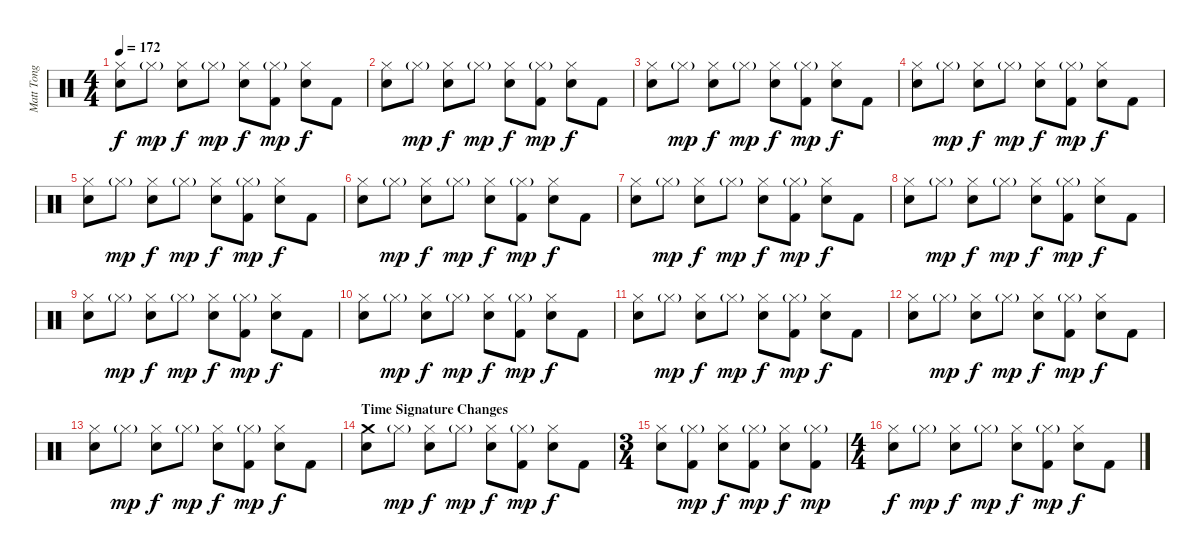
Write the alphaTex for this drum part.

\track ("Matt Tong" "Matt Tong") {instrument percussion}
\staff {score}
\articulation defaults
\ts (4 4)
\tempo 172
\clef neutral
\ks c
("Hi-Hat (closed)" "Snare (hit) 2").8{dy f} "Hi-Hat (closed)"{g}.8{dy mp} ("Hi-Hat (closed)" "Snare (hit) 2").8{dy f} "Hi-Hat (closed)"{g}.8{dy mp} ("Hi-Hat (closed)" "Snare (hit) 2").8{dy f} ("Hi-Hat (closed)"{g} "Kick (hit) 2").8{dy mp} ("Hi-Hat (closed)" "Snare (hit) 2").8{dy f} "Kick (hit) 2".8 |
("Hi-Hat (closed)" "Snare (hit) 2").8 "Hi-Hat (closed)"{g}.8{dy mp} ("Hi-Hat (closed)" "Snare (hit) 2").8{dy f} "Hi-Hat (closed)"{g}.8{dy mp} ("Hi-Hat (closed)" "Snare (hit) 2").8{dy f} ("Hi-Hat (closed)"{g} "Kick (hit) 2").8{dy mp} ("Hi-Hat (closed)" "Snare (hit) 2").8{dy f} "Kick (hit) 2".8 |
("Hi-Hat (closed)" "Snare (hit) 2").8 "Hi-Hat (closed)"{g}.8{dy mp} ("Hi-Hat (closed)" "Snare (hit) 2").8{dy f} "Hi-Hat (closed)"{g}.8{dy mp} ("Hi-Hat (closed)" "Snare (hit) 2").8{dy f} ("Hi-Hat (closed)"{g} "Kick (hit) 2").8{dy mp} ("Hi-Hat (closed)" "Snare (hit) 2").8{dy f} "Kick (hit) 2".8 |
("Hi-Hat (closed)" "Snare (hit) 2").8 "Hi-Hat (closed)"{g}.8{dy mp} ("Hi-Hat (closed)" "Snare (hit) 2").8{dy f} "Hi-Hat (closed)"{g}.8{dy mp} ("Hi-Hat (closed)" "Snare (hit) 2").8{dy f} ("Hi-Hat (closed)"{g} "Kick (hit) 2").8{dy mp} ("Hi-Hat (closed)" "Snare (hit) 2").8{dy f} "Kick (hit) 2".8 |
("Hi-Hat (closed)" "Snare (hit) 2").8 "Hi-Hat (closed)"{g}.8{dy mp} ("Hi-Hat (closed)" "Snare (hit) 2").8{dy f} "Hi-Hat (closed)"{g}.8{dy mp} ("Hi-Hat (closed)" "Snare (hit) 2").8{dy f} ("Hi-Hat (closed)"{g} "Kick (hit) 2").8{dy mp} ("Hi-Hat (closed)" "Snare (hit) 2").8{dy f} "Kick (hit) 2".8 |
("Hi-Hat (closed)" "Snare (hit) 2").8 "Hi-Hat (closed)"{g}.8{dy mp} ("Hi-Hat (closed)" "Snare (hit) 2").8{dy f} "Hi-Hat (closed)"{g}.8{dy mp} ("Hi-Hat (closed)" "Snare (hit) 2").8{dy f} ("Hi-Hat (closed)"{g} "Kick (hit) 2").8{dy mp} ("Hi-Hat (closed)" "Snare (hit) 2").8{dy f} "Kick (hit) 2".8 |
("Hi-Hat (closed)" "Snare (hit) 2").8 "Hi-Hat (closed)"{g}.8{dy mp} ("Hi-Hat (closed)" "Snare (hit) 2").8{dy f} "Hi-Hat (closed)"{g}.8{dy mp} ("Hi-Hat (closed)" "Snare (hit) 2").8{dy f} ("Hi-Hat (closed)"{g} "Kick (hit) 2").8{dy mp} ("Hi-Hat (closed)" "Snare (hit) 2").8{dy f} "Kick (hit) 2".8 |
("Hi-Hat (closed)" "Snare (hit) 2").8 "Hi-Hat (closed)"{g}.8{dy mp} ("Hi-Hat (closed)" "Snare (hit) 2").8{dy f} "Hi-Hat (closed)"{g}.8{dy mp} ("Hi-Hat (closed)" "Snare (hit) 2").8{dy f} ("Hi-Hat (closed)"{g} "Kick (hit) 2").8{dy mp} ("Hi-Hat (closed)" "Snare (hit) 2").8{dy f} "Kick (hit) 2".8 |
("Hi-Hat (closed)" "Snare (hit) 2").8 "Hi-Hat (closed)"{g}.8{dy mp} ("Hi-Hat (closed)" "Snare (hit) 2").8{dy f} "Hi-Hat (closed)"{g}.8{dy mp} ("Hi-Hat (closed)" "Snare (hit) 2").8{dy f} ("Hi-Hat (closed)"{g} "Kick (hit) 2").8{dy mp} ("Hi-Hat (closed)" "Snare (hit) 2").8{dy f} "Kick (hit) 2".8 |
("Hi-Hat (closed)" "Snare (hit) 2").8 "Hi-Hat (closed)"{g}.8{dy mp} ("Hi-Hat (closed)" "Snare (hit) 2").8{dy f} "Hi-Hat (closed)"{g}.8{dy mp} ("Hi-Hat (closed)" "Snare (hit) 2").8{dy f} ("Hi-Hat (closed)"{g} "Kick (hit) 2").8{dy mp} ("Hi-Hat (closed)" "Snare (hit) 2").8{dy f} "Kick (hit) 2".8 |
("Hi-Hat (closed)" "Snare (hit) 2").8 "Hi-Hat (closed)"{g}.8{dy mp} ("Hi-Hat (closed)" "Snare (hit) 2").8{dy f} "Hi-Hat (closed)"{g}.8{dy mp} ("Hi-Hat (closed)" "Snare (hit) 2").8{dy f} ("Hi-Hat (closed)"{g} "Kick (hit) 2").8{dy mp} ("Hi-Hat (closed)" "Snare (hit) 2").8{dy f} "Kick (hit) 2".8 |
("Hi-Hat (closed)" "Snare (hit) 2").8 "Hi-Hat (closed)"{g}.8{dy mp} ("Hi-Hat (closed)" "Snare (hit) 2").8{dy f} "Hi-Hat (closed)"{g}.8{dy mp} ("Hi-Hat (closed)" "Snare (hit) 2").8{dy f} ("Hi-Hat (closed)"{g} "Kick (hit) 2").8{dy mp} ("Hi-Hat (closed)" "Snare (hit) 2").8{dy f} "Kick (hit) 2".8 |
("Hi-Hat (closed)" "Snare (hit) 2").8 "Hi-Hat (closed)"{g}.8{dy mp} ("Hi-Hat (closed)" "Snare (hit) 2").8{dy f} "Hi-Hat (closed)"{g}.8{dy mp} ("Hi-Hat (closed)" "Snare (hit) 2").8{dy f} ("Hi-Hat (closed)"{g} "Kick (hit) 2").8{dy mp} ("Hi-Hat (closed)" "Snare (hit) 2").8{dy f} "Kick (hit) 2".8 |
\section ("" "Time Signature Changes")
("Crash medium (hit)" "Snare (hit) 2").8 "Hi-Hat (closed)"{g}.8{dy mp} ("Hi-Hat (closed)" "Snare (hit) 2").8{dy f} "Hi-Hat (closed)"{g}.8{dy mp} ("Hi-Hat (closed)" "Snare (hit) 2").8{dy f} ("Hi-Hat (closed)"{g} "Kick (hit) 2").8{dy mp} ("Hi-Hat (closed)" "Snare (hit) 2").8{dy f} "Kick (hit) 2".8 |
\ts (3 4)
("Hi-Hat (closed)" "Snare (hit) 2").8 ("Hi-Hat (closed)"{g} "Kick (hit) 2").8{dy mp} ("Hi-Hat (closed)" "Snare (hit) 2").8{dy f} ("Hi-Hat (closed)"{g} "Kick (hit) 2").8{dy mp} ("Hi-Hat (closed)" "Snare (hit) 2").8{dy f} ("Hi-Hat (closed)"{g} "Kick (hit) 2").8{dy mp} |
\ts (4 4)
("Hi-Hat (closed)" "Snare (hit) 2").8{dy f} "Hi-Hat (closed)"{g}.8{dy mp} ("Hi-Hat (closed)" "Snare (hit) 2").8{dy f} "Hi-Hat (closed)"{g}.8{dy mp} ("Hi-Hat (closed)" "Snare (hit) 2").8{dy f} ("Hi-Hat (closed)"{g} "Kick (hit) 2").8{dy mp} ("Hi-Hat (closed)" "Snare (hit) 2").8{dy f} "Kick (hit) 2".8
